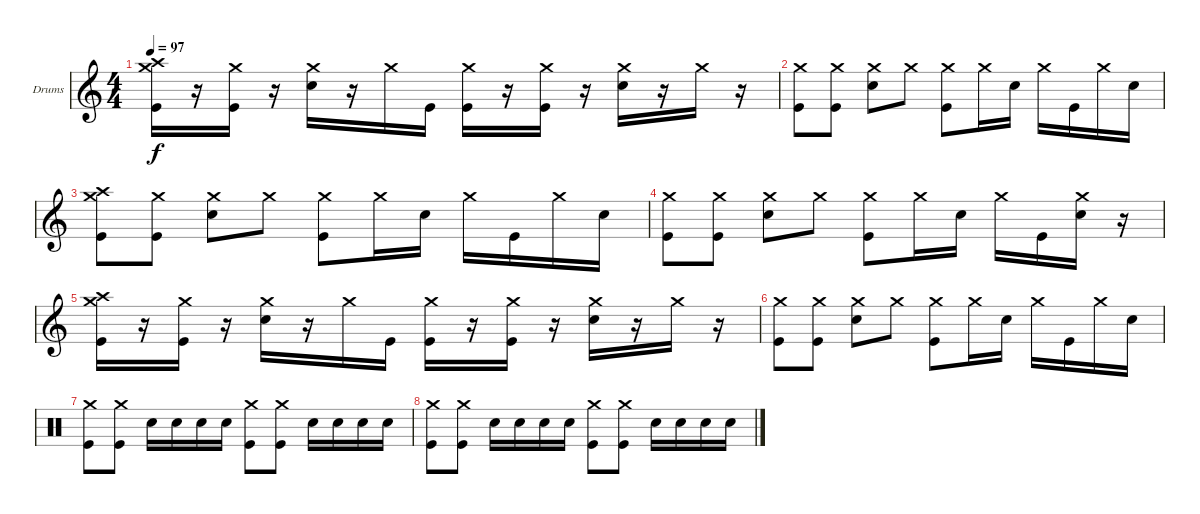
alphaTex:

\defaultSystemsLayout 4
\bracketExtendMode groupsimilarinstruments
\firstSystemTrackNameOrientation horizontal
\otherSystemsTrackNameOrientation horizontal
\track ("David Buckner" "Drums") {instrument percussion}
\staff {score}
\articulation defaults
\ts (4 4)
\tempo 97
\clef g2
\ks c
("Crash medium (hit)" "Crash high (hit)" "Kick (hit)").16{dy f} r.16 ("Kick (hit)" "Crash medium (hit)").16 r.16 ("Snare (hit) 2" "Crash medium (hit)").16 r.16 "Crash medium (hit)".16 "Kick (hit)".16 ("Kick (hit)" "Crash medium (hit)").16 r.16 ("Kick (hit)" "Crash medium (hit)").16 r.16 ("Snare (hit) 2" "Crash medium (hit)").16 r.16 "Crash medium (hit)".16 r.16 |
("Kick (hit)" "Crash medium (hit)").8 ("Kick (hit)" "Crash medium (hit)").8 ("Snare (hit) 2" "Crash medium (hit)").8 "Crash medium (hit)".8 ("Kick (hit)" "Crash medium (hit)").8 "Crash medium (hit)".16 "Snare (hit) 2".16 "Crash medium (hit)".16 "Kick (hit)".16 "Crash medium (hit)".16 "Snare (hit) 2".16 |
("Kick (hit)" "Crash medium (hit)" "Crash high (hit)").8 ("Kick (hit)" "Crash medium (hit)").8 ("Snare (hit) 2" "Crash medium (hit)").8 "Crash medium (hit)".8 ("Kick (hit)" "Crash medium (hit)").8 "Crash medium (hit)".16 "Snare (hit) 2".16 "Crash medium (hit)".16 "Kick (hit)".16 "Crash medium (hit)".16 "Snare (hit) 2".16 |
("Kick (hit)" "Crash medium (hit)").8 ("Kick (hit)" "Crash medium (hit)").8 ("Snare (hit) 2" "Crash medium (hit)").8 "Crash medium (hit)".8 ("Kick (hit)" "Crash medium (hit)").8 "Crash medium (hit)".16 "Snare (hit) 2".16 "Crash medium (hit)".16 "Kick (hit)".16 ("Crash medium (hit)" "Snare (hit) 2").16 r.16 |
("Crash medium (hit)" "Crash high (hit)" "Kick (hit)").16 r.16 ("Kick (hit)" "Crash medium (hit)").16 r.16 ("Snare (hit) 2" "Crash medium (hit)").16 r.16 "Crash medium (hit)".16 "Kick (hit)".16 ("Kick (hit)" "Crash medium (hit)").16 r.16 ("Kick (hit)" "Crash medium (hit)").16 r.16 ("Snare (hit) 2" "Crash medium (hit)").16 r.16 "Crash medium (hit)".16 r.16 |
("Kick (hit)" "Crash medium (hit)").8 ("Kick (hit)" "Crash medium (hit)").8 ("Snare (hit) 2" "Crash medium (hit)").8 "Crash medium (hit)".8 ("Kick (hit)" "Crash medium (hit)").8 "Crash medium (hit)".16 "Snare (hit) 2".16 "Crash medium (hit)".16 "Kick (hit)".16 "Crash medium (hit)".16 "Snare (hit) 2".16 |
\clef neutral
("Kick (hit)" "Crash medium (hit)").8 ("Kick (hit)" "Crash medium (hit)").8 "Snare (hit) 2".16 "Snare (hit) 2".16 "Snare (hit) 2".16 "Snare (hit) 2".16 ("Kick (hit)" "Crash medium (hit)").8 ("Kick (hit)" "Crash medium (hit)").8 "Snare (hit) 2".16 "Snare (hit) 2".16 "Snare (hit) 2".16 "Snare (hit) 2".16 |
("Kick (hit)" "Crash medium (hit)").8 ("Kick (hit)" "Crash medium (hit)").8 "Snare (hit) 2".16 "Snare (hit) 2".16 "Snare (hit) 2".16 "Snare (hit) 2".16 ("Kick (hit)" "Crash medium (hit)").8 ("Kick (hit)" "Crash medium (hit)").8 "Snare (hit) 2".16 "Snare (hit) 2".16 "Snare (hit) 2".16 "Snare (hit) 2".16
